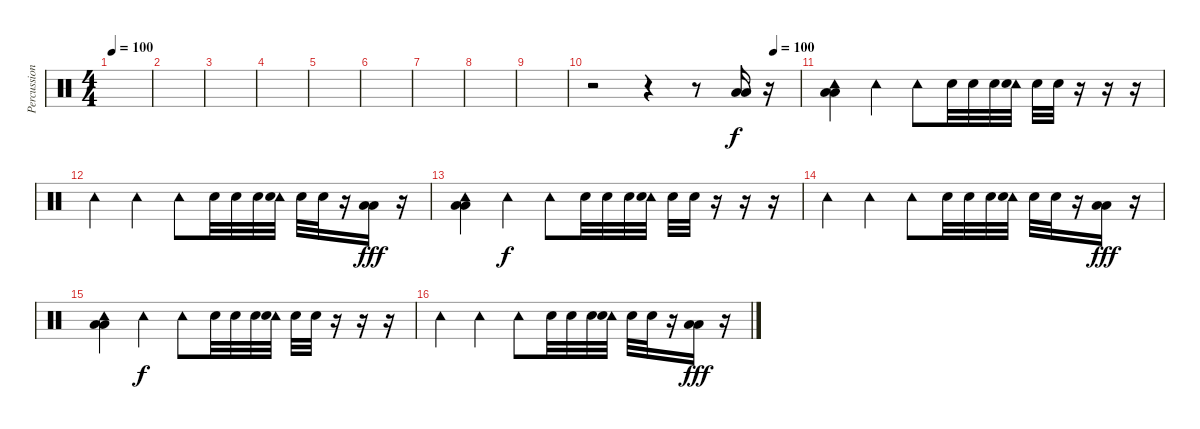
\track ("Percussion" "Percussion") {instrument percussion}
\staff {score}
\articulation defaults
\ts (4 4)
\tempo 100
\clef neutral
\ks c
|
|
|
|
|
|
|
|
|
\tempo (100 0.875)
r.2 r.4 r.8 ("Low Floor Tom (hit)" "Low Tom (hit)").16 r.16 |
("Tambourine (hit)" "Low Floor Tom (hit)" "Low Tom (hit)").4 "Tambourine (hit)".4{dy f} "Tambourine (hit)".8 "Snare (hit) 2".32 "Snare (hit) 2".32 "Snare (hit) 2".32 ("Tambourine (hit)" "Snare (hit) 2").32 "Snare (hit) 2".32 "Snare (hit) 2".32 r.16 r.16 r.16 |
"Tambourine (hit)".4 "Tambourine (hit)".4 "Tambourine (hit)".8 "Snare (hit) 2".32 "Snare (hit) 2".32 "Snare (hit) 2".32 ("Tambourine (hit)" "Snare (hit) 2").32 "Snare (hit) 2".32 "Snare (hit) 2".32 r.16 ("Low Floor Tom (hit)" "Low Tom (hit)").16{dy fff} r.16 |
("Tambourine (hit)" "Low Floor Tom (hit)" "Low Tom (hit)").4 "Tambourine (hit)".4{dy f} "Tambourine (hit)".8 "Snare (hit) 2".32 "Snare (hit) 2".32 "Snare (hit) 2".32 ("Tambourine (hit)" "Snare (hit) 2").32 "Snare (hit) 2".32 "Snare (hit) 2".32 r.16 r.16 r.16 |
"Tambourine (hit)".4 "Tambourine (hit)".4 "Tambourine (hit)".8 "Snare (hit) 2".32 "Snare (hit) 2".32 "Snare (hit) 2".32 ("Tambourine (hit)" "Snare (hit) 2").32 "Snare (hit) 2".32 "Snare (hit) 2".32 r.16 ("Low Floor Tom (hit)" "Low Tom (hit)").16{dy fff} r.16 |
("Tambourine (hit)" "Low Floor Tom (hit)" "Low Tom (hit)").4 "Tambourine (hit)".4{dy f} "Tambourine (hit)".8 "Snare (hit) 2".32 "Snare (hit) 2".32 "Snare (hit) 2".32 ("Tambourine (hit)" "Snare (hit) 2").32 "Snare (hit) 2".32 "Snare (hit) 2".32 r.16 r.16 r.16 |
"Tambourine (hit)".4 "Tambourine (hit)".4 "Tambourine (hit)".8 "Snare (hit) 2".32 "Snare (hit) 2".32 "Snare (hit) 2".32 ("Tambourine (hit)" "Snare (hit) 2").32 "Snare (hit) 2".32 "Snare (hit) 2".32 r.16 ("Low Floor Tom (hit)" "Low Tom (hit)").16{dy fff} r.16
